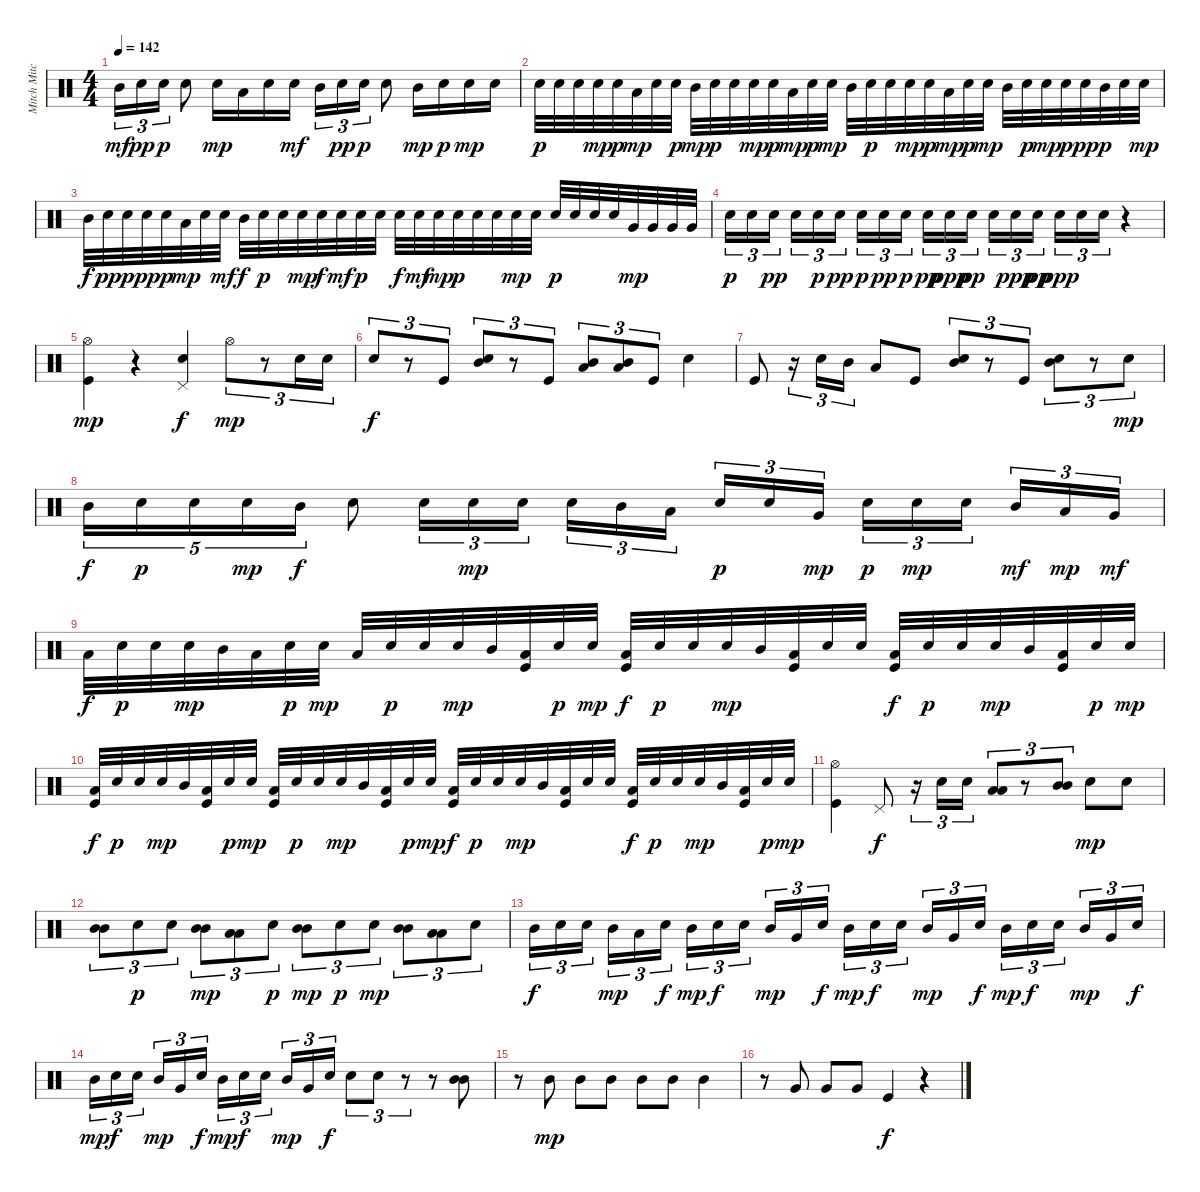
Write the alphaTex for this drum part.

\track ("Mitch Mitchell" "Mitch Mitc") {instrument percussion}
\staff {score}
\articulation defaults
\ts (4 4)
\tempo 142
\clef neutral
\ks c "Mid Tom (hit)".16{tu (3 2) dy mf} "Electric Snare (hit)".16{tu (3 2) dy pp} "Electric Snare (hit)".16{tu (3 2) dy p} "Electric Snare (hit)".8 "Electric Snare (hit)".16{dy mp} "Low Tom (hit)".16 "Electric Snare (hit)".16 "Electric Snare (hit)".16{dy mf} "Mid Tom (hit)".16{tu (3 2)} "Electric Snare (hit)".16{tu (3 2) dy pp} "Electric Snare (hit)".16{tu (3 2) dy p} "Electric Snare (hit)".8 "Mid Tom (hit)".16{dy mp} "Electric Snare (hit)".16{dy p} "Electric Snare (hit)".16{dy mp} "Electric Snare (hit)".16
|
"Electric Snare (hit)".32{dy p} "Electric Snare (hit)".32 "Electric Snare (hit)".32 "Electric Snare (hit)".32{dy mp} "Electric Snare (hit)".32{dy p} "Low Tom (hit)".32{dy mp} "Electric Snare (hit)".32 "Electric Snare (hit)".32{dy p} "Mid Tom (hit)".32{dy mp} "Electric Snare (hit)".32{dy p} "Electric Snare (hit)".32 "Electric Snare (hit)".32{dy mp} "Electric Snare (hit)".32{dy p} "Low Tom (hit)".32{dy mp} "Electric Snare (hit)".32{dy p} "Electric Snare (hit)".32{dy mp} "Mid Tom (hit)".32 "Electric Snare (hit)".32{dy p} "Electric Snare (hit)".32 "Electric Snare (hit)".32{dy mp} "Electric Snare (hit)".32{dy p} "Low Tom (hit)".32{dy mp} "Electric Snare (hit)".32{dy p} "Electric Snare (hit)".32{dy mp} "Mid Tom (hit)".32 "Electric Snare (hit)".32{dy p} "Electric Snare (hit)".32{dy mp} "Electric Snare (hit)".32{dy p} "Electric Snare (hit)".32{dy pp} "Mid Tom (hit)".32{dy p} "Electric Snare (hit)".32 "Electric Snare (hit)".32{dy mp} |
"Mid Tom (hit)".32{dy f} "Electric Snare (hit)".32{dy pp} "Electric Snare (hit)".32{dy p} "Electric Snare (hit)".32{dy pp} "Electric Snare (hit)".32{dy p} "Low Tom (hit)".32{dy mp} "Electric Snare (hit)".32 "Electric Snare (hit)".32{dy mf} "Mid Tom (hit)".32{dy f} "Electric Snare (hit)".32{dy p} "Electric Snare (hit)".32 "Electric Snare (hit)".32{dy mp} "Electric Snare (hit)".32{dy f} "Electric Snare (hit)".32{dy mf} "Electric Snare (hit)".32{dy p} "Electric Snare (hit)".32 "Electric Snare (hit)".32{dy f} "Electric Snare (hit)".32{dy mf} "Electric Snare (hit)".32{dy mp} "Electric Snare (hit)".32{dy p} "Electric Snare (hit)".32 "Electric Snare (hit)".32 "Electric Snare (hit)".32{dy mp} "Electric Snare (hit)".32 "Electric Snare (hit)".32{dy p} "Electric Snare (hit)".32 "Electric Snare (hit)".32 "Electric Snare (hit)".32 "Very Low Tom (hit)".32{dy mp} "Very Low Tom (hit)".32 "Very Low Tom (hit)".32 "Very Low Tom (hit)".32 |
"Electric Snare (hit)".16{tu (3 2) dy p} "Electric Snare (hit)".16{tu (3 2)} "Electric Snare (hit)".16{tu (3 2) dy pp} "Electric Snare (hit)".16{tu (3 2)} "Electric Snare (hit)".16{tu (3 2) dy p} "Electric Snare (hit)".16{tu (3 2) dy pp} "Electric Snare (hit)".16{tu (3 2) dy p} "Electric Snare (hit)".16{tu (3 2) dy pp} "Electric Snare (hit)".16{tu (3 2) dy p} "Electric Snare (hit)".16{tu (3 2) dy pp} "Electric Snare (hit)".16{tu (3 2) dy ppp} "Electric Snare (hit)".16{tu (3 2) dy pp} "Electric Snare (hit)".16{tu (3 2)} "Electric Snare (hit)".16{tu (3 2) dy ppp} "Electric Snare (hit)".16{tu (3 2) dy pp} "Electric Snare (hit)".16{tu (3 2) dy ppp} "Electric Snare (hit)".16{tu (3 2)} "Electric Snare (hit)".16{tu (3 2)} r.4 |
("Hi-Hat (open)" "Kick (hit)").4{dy mp} r.4 ("Pedal Hi-Hat (hit)" "Electric Snare (hit)").4{dy f} "Hi-Hat (open)".8{tu (3 2) dy mp} r.8{tu (3 2)} "Electric Snare (hit)".16{tu (3 2)} "Electric Snare (hit)".16{tu (3 2)} |
"Electric Snare (hit)".8{tu (3 2) dy f} r.8{tu (3 2)} "Kick (hit)".8{tu (3 2)} ("Mid Tom (hit)" "Electric Snare (hit)").8{tu (3 2)} r.8{tu (3 2)} "Kick (hit)".8{tu (3 2)} ("Mid Tom (hit)" "Low Tom (hit)").8{tu (3 2)} ("Mid Tom (hit)" "Low Tom (hit)").8{tu (3 2)} "Kick (hit)".8{tu (3 2)} "Electric Snare (hit)".4 |
"Kick (hit)".8 r.16{tu (3 2)} "Electric Snare (hit)".16{tu (3 2)} "Mid Tom (hit)".16{tu (3 2)} "Low Tom (hit)".8 "Kick (hit)".8 ("Mid Tom (hit)" "Electric Snare (hit)").8{tu (3 2)} r.8{tu (3 2)} "Kick (hit)".8{tu (3 2)} ("Mid Tom (hit)" "Electric Snare (hit)").8{tu (3 2)} r.8{tu (3 2)} "Electric Snare (hit)".8{tu (3 2) dy mp} |
"Mid Tom (hit)".16{tu (5 4) dy f} "Electric Snare (hit)".16{tu (5 4) dy p} "Electric Snare (hit)".16{tu (5 4)} "Electric Snare (hit)".16{tu (5 4) dy mp} "Mid Tom (hit)".16{tu (5 4) dy f} "Electric Snare (hit)".8 "Electric Snare (hit)".16{tu (3 2)} "Electric Snare (hit)".16{tu (3 2) dy mp} "Electric Snare (hit)".16{tu (3 2)} "Electric Snare (hit)".16{tu (3 2)} "Mid Tom (hit)".16{tu (3 2)} "Low Tom (hit)".16{tu (3 2)} "Electric Snare (hit)".16{tu (3 2) dy p} "Electric Snare (hit)".16{tu (3 2)} "Very Low Tom (hit)".16{tu (3 2) dy mp} "Electric Snare (hit)".16{tu (3 2) dy p} "Electric Snare (hit)".16{tu (3 2) dy mp} "Electric Snare (hit)".16{tu (3 2)} "Mid Tom (hit)".16{tu (3 2) dy mf} "Low Tom (hit)".16{tu (3 2) dy mp} "Very Low Tom (hit)".16{tu (3 2) dy mf} |
"Low Tom (hit)".32{dy f} "Electric Snare (hit)".32{dy p} "Electric Snare (hit)".32 "Electric Snare (hit)".32{dy mp} "Mid Tom (hit)".32 "Low Tom (hit)".32 "Electric Snare (hit)".32{dy p} "Electric Snare (hit)".32{dy mp} "Low Tom (hit)".32 "Electric Snare (hit)".32{dy p} "Electric Snare (hit)".32 "Electric Snare (hit)".32{dy mp} "Mid Tom (hit)".32 ("Low Tom (hit)" "Kick (hit)").32 "Electric Snare (hit)".32{dy p} "Electric Snare (hit)".32{dy mp} ("Low Tom (hit)" "Kick (hit)").32{dy f} "Electric Snare (hit)".32{dy p} "Electric Snare (hit)".32 "Electric Snare (hit)".32{dy mp} "Mid Tom (hit)".32 ("Low Tom (hit)" "Kick (hit)").32 "Electric Snare (hit)".32 "Electric Snare (hit)".32 ("Low Tom (hit)" "Kick (hit)").32{dy f} "Electric Snare (hit)".32{dy p} "Electric Snare (hit)".32 "Electric Snare (hit)".32{dy mp} "Mid Tom (hit)".32 ("Low Tom (hit)" "Kick (hit)").32 "Electric Snare (hit)".32{dy p} "Electric Snare (hit)".32{dy mp} |
("Low Tom (hit)" "Kick (hit)").32{dy f} "Electric Snare (hit)".32{dy p} "Electric Snare (hit)".32 "Electric Snare (hit)".32{dy mp} "Mid Tom (hit)".32 ("Low Tom (hit)" "Kick (hit)").32 "Electric Snare (hit)".32{dy p} "Electric Snare (hit)".32{dy mp} ("Low Tom (hit)" "Kick (hit)").32 "Electric Snare (hit)".32{dy p} "Electric Snare (hit)".32 "Electric Snare (hit)".32{dy mp} "Mid Tom (hit)".32 ("Low Tom (hit)" "Kick (hit)").32 "Electric Snare (hit)".32{dy p} "Electric Snare (hit)".32{dy mp} ("Low Tom (hit)" "Kick (hit)").32{dy f} "Electric Snare (hit)".32{dy p} "Electric Snare (hit)".32 "Electric Snare (hit)".32{dy mp} "Mid Tom (hit)".32 ("Low Tom (hit)" "Kick (hit)").32 "Electric Snare (hit)".32 "Electric Snare (hit)".32 ("Low Tom (hit)" "Kick (hit)").32{dy f} "Electric Snare (hit)".32{dy p} "Electric Snare (hit)".32 "Electric Snare (hit)".32{dy mp} "Mid Tom (hit)".32 ("Low Tom (hit)" "Kick (hit)").32 "Electric Snare (hit)".32{dy p} "Electric Snare (hit)".32{dy mp} |
("Hi-Hat (open)" "Kick (hit)").4 "Pedal Hi-Hat (hit)".8{dy f} r.16{tu (3 2)} "Electric Snare (hit)".16{tu (3 2)} "Electric Snare (hit)".16{tu (3 2)} ("Low Tom (hit)" "Low Tom (hit)").8{tu (3 2)} r.8{tu (3 2)} ("Mid Tom (hit)" "Mid Tom (hit)").8{tu (3 2)} "Electric Snare (hit)".8{dy mp} "Electric Snare (hit)".8 |
("Mid Tom (hit)" "Mid Tom (hit)").8{tu (3 2)} "Electric Snare (hit)".8{tu (3 2) dy p} "Electric Snare (hit)".8{tu (3 2)} ("Mid Tom (hit)" "Mid Tom (hit)").8{tu (3 2) dy mp} ("Low Tom (hit)" "Low Tom (hit)").8{tu (3 2)} "Electric Snare (hit)".8{tu (3 2) dy p} ("Mid Tom (hit)" "Mid Tom (hit)").8{tu (3 2) dy mp} "Electric Snare (hit)".8{tu (3 2) dy p} "Electric Snare (hit)".8{tu (3 2) dy mp} ("Mid Tom (hit)" "Mid Tom (hit)").8{tu (3 2)} ("Low Tom (hit)" "Low Tom (hit)").8{tu (3 2)} "Electric Snare (hit)".8{tu (3 2)} |
"Mid Tom (hit)".16{tu (3 2) dy f} "Electric Snare (hit)".16{tu (3 2)} "Electric Snare (hit)".16{tu (3 2)} "Mid Tom (hit)".16{tu (3 2) dy mp} "Low Tom (hit)".16{tu (3 2)} "Electric Snare (hit)".16{tu (3 2) dy f} "Mid Tom (hit)".16{tu (3 2) dy mp} "Electric Snare (hit)".16{tu (3 2) dy f} "Electric Snare (hit)".16{tu (3 2)} "Mid Tom (hit)".16{tu (3 2) dy mp} "Very Low Tom (hit)".16{tu (3 2)} "Electric Snare (hit)".16{tu (3 2) dy f} "Mid Tom (hit)".16{tu (3 2) dy mp} "Electric Snare (hit)".16{tu (3 2) dy f} "Electric Snare (hit)".16{tu (3 2)} "Mid Tom (hit)".16{tu (3 2) dy mp} "Very Low Tom (hit)".16{tu (3 2)} "Electric Snare (hit)".16{tu (3 2) dy f} "Mid Tom (hit)".16{tu (3 2) dy mp} "Electric Snare (hit)".16{tu (3 2) dy f} "Electric Snare (hit)".16{tu (3 2)} "Mid Tom (hit)".16{tu (3 2) dy mp} "Very Low Tom (hit)".16{tu (3 2)} "Electric Snare (hit)".16{tu (3 2) dy f} |
"Mid Tom (hit)".16{tu (3 2) dy mp} "Electric Snare (hit)".16{tu (3 2) dy f} "Electric Snare (hit)".16{tu (3 2)} "Mid Tom (hit)".16{tu (3 2) dy mp} "Very Low Tom (hit)".16{tu (3 2)} "Electric Snare (hit)".16{tu (3 2) dy f} "Mid Tom (hit)".16{tu (3 2) dy mp} "Electric Snare (hit)".16{tu (3 2) dy f} "Electric Snare (hit)".16{tu (3 2)} "Mid Tom (hit)".16{tu (3 2) dy mp} "Very Low Tom (hit)".16{tu (3 2)} "Electric Snare (hit)".16{tu (3 2) dy f} "Electric Snare (hit)".8{tu (3 2)} "Electric Snare (hit)".8{tu (3 2)} r.8{tu (3 2)} r.8 ("Mid Tom (hit)" "Mid Tom (hit)").8 |
r.8 "Mid Tom (hit)".8{dy mp} "Mid Tom (hit)".8 "Mid Tom (hit)".8 "Mid Tom (hit)".8 "Mid Tom (hit)".8 "Mid Tom (hit)".4 |
r.8 "Very Low Tom (hit)".8 "Very Low Tom (hit)".8 "Very Low Tom (hit)".8 "Kick (hit)".4{dy f} r.4
